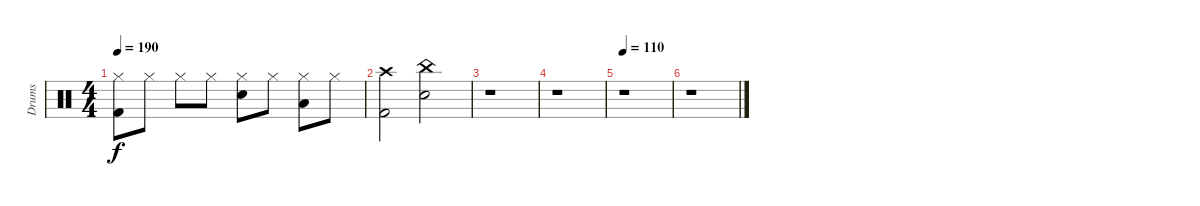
\track ("Drums" "Drums") {instrument percussion}
\staff {score}
\articulation defaults
\ts (4 4)
\tempo 190
\clef neutral
\ks c
("Kick (hit) 2" "Hi-Hat (closed)").8{dy f} "Hi-Hat (closed)".8 "Hi-Hat (closed)".8 "Hi-Hat (closed)".8 ("Snare (hit) 2" "Hi-Hat (closed)").8 "Hi-Hat (closed)".8 ("Low Tom (hit)" "Hi-Hat (closed)").8 "Hi-Hat (closed)".8 |
("Kick (hit) 2" "Crash high (hit)").2 ("Snare (hit) 2" "China (hit)").2 |
r.1 |
r.1 |
\tempo 110
r.1 |
r.1
